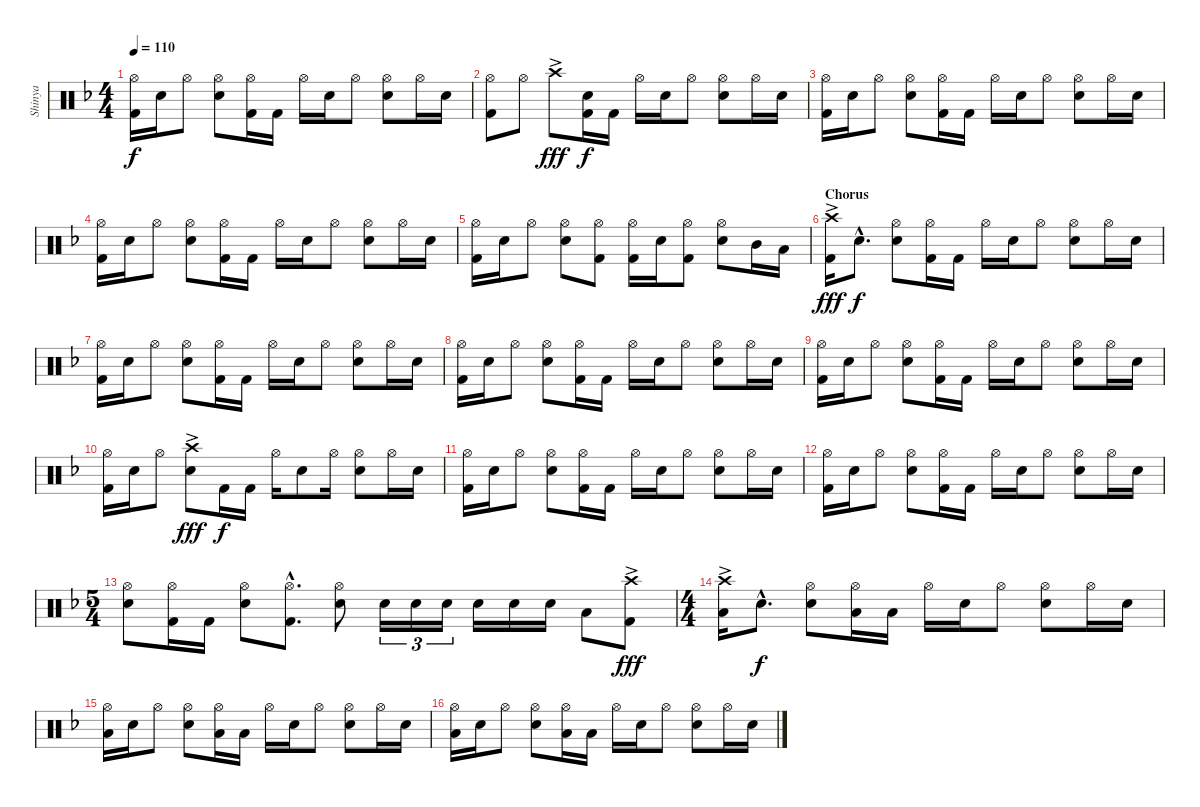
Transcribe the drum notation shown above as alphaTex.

\track ("Shinya" "Shinya") {instrument percussion}
\staff {score}
\articulation defaults
\ts (4 4)
\tempo 110
\clef neutral
\ks f
("Hi-Hat (open)" "Kick (hit) 2").16{dy f} "Snare (hit) 2".16 "Hi-Hat (open)".8 ("Hi-Hat (open)" "Snare (hit) 2").8 ("Hi-Hat (open)" "Kick (hit) 2").16 "Kick (hit) 2".16 "Hi-Hat (open)".16 "Snare (hit) 2".16 "Hi-Hat (open)".8 ("Hi-Hat (open)" "Snare (hit) 2").8 "Hi-Hat (open)".16 "Snare (hit) 2".16 |
("Hi-Hat (open)" "Kick (hit) 2").8 "Hi-Hat (open)".8 "Crash high (hit)"{ac}.8{dy fff} ("Snare (hit) 2" "Kick (hit) 2").16{dy f} "Kick (hit) 2".16 "Hi-Hat (open)".16 "Snare (hit) 2".16 "Hi-Hat (open)".8 ("Hi-Hat (open)" "Snare (hit) 2").8 "Hi-Hat (open)".16 "Snare (hit) 2".16 |
("Hi-Hat (open)" "Kick (hit) 2").16 "Snare (hit) 2".16 "Hi-Hat (open)".8 ("Hi-Hat (open)" "Snare (hit) 2").8 ("Hi-Hat (open)" "Kick (hit) 2").16 "Kick (hit) 2".16 "Hi-Hat (open)".16 "Snare (hit) 2".16 "Hi-Hat (open)".8 ("Hi-Hat (open)" "Snare (hit) 2").8 "Hi-Hat (open)".16 "Snare (hit) 2".16 |
("Hi-Hat (open)" "Kick (hit) 2").16 "Snare (hit) 2".16 "Hi-Hat (open)".8 ("Hi-Hat (open)" "Snare (hit) 2").8 ("Hi-Hat (open)" "Kick (hit) 2").16 "Kick (hit) 2".16 "Hi-Hat (open)".16 "Snare (hit) 2".16 "Hi-Hat (open)".8 ("Hi-Hat (open)" "Snare (hit) 2").8 "Hi-Hat (open)".16 "Snare (hit) 2".16 |
("Hi-Hat (open)" "Kick (hit) 2").16 "Snare (hit) 2".16 "Hi-Hat (open)".8 ("Hi-Hat (open)" "Snare (hit) 2").8 ("Hi-Hat (open)" "Kick (hit) 2").8 ("Hi-Hat (open)" "Kick (hit) 2").16 "Snare (hit) 2".16 ("Hi-Hat (open)" "Kick (hit) 2").8 ("Hi-Hat (open)" "Snare (hit) 2").8 "Mid Tom (hit)".16 "Low Tom (hit)".16 |
\section ("" "Chorus")
("Crash high (hit)"{ac} "Kick (hit) 2").16{dy fff} "Snare (hit) 2"{hac}.8{d dy f} ("Hi-Hat (open)" "Snare (hit) 2").8 ("Hi-Hat (open)" "Kick (hit) 2").16 "Kick (hit) 2".16 "Hi-Hat (open)".16 "Snare (hit) 2".16 "Hi-Hat (open)".8 ("Hi-Hat (open)" "Snare (hit) 2").8 "Hi-Hat (open)".16 "Snare (hit) 2".16 |
("Hi-Hat (open)" "Kick (hit) 2").16 "Snare (hit) 2".16 "Hi-Hat (open)".8 ("Hi-Hat (open)" "Snare (hit) 2").8 ("Hi-Hat (open)" "Kick (hit) 2").16 "Kick (hit) 2".16 "Hi-Hat (open)".16 "Snare (hit) 2".16 "Hi-Hat (open)".8 ("Hi-Hat (open)" "Snare (hit) 2").8 "Hi-Hat (open)".16 "Snare (hit) 2".16 |
("Hi-Hat (open)" "Kick (hit) 2").16 "Snare (hit) 2".16 "Hi-Hat (open)".8 ("Hi-Hat (open)" "Snare (hit) 2").8 ("Hi-Hat (open)" "Kick (hit) 2").16 "Kick (hit) 2".16 "Hi-Hat (open)".16 "Snare (hit) 2".16 "Hi-Hat (open)".8 ("Hi-Hat (open)" "Snare (hit) 2").8 "Hi-Hat (open)".16 "Snare (hit) 2".16 |
("Hi-Hat (open)" "Kick (hit) 2").16 "Snare (hit) 2".16 "Hi-Hat (open)".8 ("Hi-Hat (open)" "Snare (hit) 2").8 ("Hi-Hat (open)" "Kick (hit) 2").16 "Kick (hit) 2".16 "Hi-Hat (open)".16 "Snare (hit) 2".16 "Hi-Hat (open)".8 ("Hi-Hat (open)" "Snare (hit) 2").8 "Hi-Hat (open)".16 "Snare (hit) 2".16 |
("Hi-Hat (open)" "Kick (hit) 2").16 "Snare (hit) 2".16 "Hi-Hat (open)".8 ("Crash high (hit)"{ac} "Snare (hit) 2").8{dy fff} "Kick (hit) 2".16{dy f} "Kick (hit) 2".16 "Hi-Hat (open)".16 "Snare (hit) 2".8 "Hi-Hat (open)".16 ("Hi-Hat (open)" "Snare (hit) 2").8 "Hi-Hat (open)".16 "Snare (hit) 2".16 |
("Hi-Hat (open)" "Kick (hit) 2").16 "Snare (hit) 2".16 "Hi-Hat (open)".8 ("Hi-Hat (open)" "Snare (hit) 2").8 ("Hi-Hat (open)" "Kick (hit) 2").16 "Kick (hit) 2".16 "Hi-Hat (open)".16 "Snare (hit) 2".16 "Hi-Hat (open)".8 ("Hi-Hat (open)" "Snare (hit) 2").8 "Hi-Hat (open)".16 "Snare (hit) 2".16 |
("Hi-Hat (open)" "Kick (hit) 2").16 "Snare (hit) 2".16 "Hi-Hat (open)".8 ("Hi-Hat (open)" "Snare (hit) 2").8 ("Hi-Hat (open)" "Kick (hit) 2").16 "Kick (hit) 2".16 "Hi-Hat (open)".16 "Snare (hit) 2".16 "Hi-Hat (open)".8 ("Hi-Hat (open)" "Snare (hit) 2").8 "Hi-Hat (open)".16 "Snare (hit) 2".16 |
\ts (5 4)
("Hi-Hat (open)" "Snare (hit) 2").8 ("Hi-Hat (open)" "Kick (hit) 2").16 "Kick (hit) 2".16 ("Hi-Hat (open)" "Snare (hit) 2").8 ("Hi-Hat (open)"{hac} "Kick (hit) 2"{hac}).8{d} ("Hi-Hat (open)" "Snare (hit) 2").8 "Snare (hit) 2".16{tu (3 2)} "Snare (hit) 2".16{tu (3 2)} "Snare (hit) 2".16{tu (3 2)} "Snare (hit) 2".16 "Snare (hit) 2".16 "Snare (hit) 2".16 "Low Tom (hit)".8 ("Crash high (hit)"{ac} "Kick (hit) 2").8{dy fff} |
\ts (4 4)
("Crash high (hit)"{ac} "Low Floor Tom (hit)").16{volume 15} "Snare (hit) 2"{hac}.8{d dy f} ("Hi-Hat (open)" "Snare (hit) 2").8 ("Hi-Hat (open)" "Low Floor Tom (hit)").16 "Low Floor Tom (hit)".16 "Hi-Hat (open)".16 "Snare (hit) 2".16 "Hi-Hat (open)".8 ("Hi-Hat (open)" "Snare (hit) 2").8 "Hi-Hat (open)".16 "Snare (hit) 2".16 |
("Hi-Hat (open)" "Low Floor Tom (hit)").16 "Snare (hit) 2".16 "Hi-Hat (open)".8 ("Hi-Hat (open)" "Snare (hit) 2").8 ("Hi-Hat (open)" "Low Floor Tom (hit)").16 "Low Floor Tom (hit)".16 "Hi-Hat (open)".16 "Snare (hit) 2".16 "Hi-Hat (open)".8 ("Hi-Hat (open)" "Snare (hit) 2").8 "Hi-Hat (open)".16 "Snare (hit) 2".16 |
("Hi-Hat (open)" "Low Floor Tom (hit)").16 "Snare (hit) 2".16 "Hi-Hat (open)".8 ("Hi-Hat (open)" "Snare (hit) 2").8 ("Hi-Hat (open)" "Low Floor Tom (hit)").16 "Low Floor Tom (hit)".16 "Hi-Hat (open)".16 "Snare (hit) 2".16 "Hi-Hat (open)".8 ("Hi-Hat (open)" "Snare (hit) 2").8 "Hi-Hat (open)".16 "Snare (hit) 2".16
